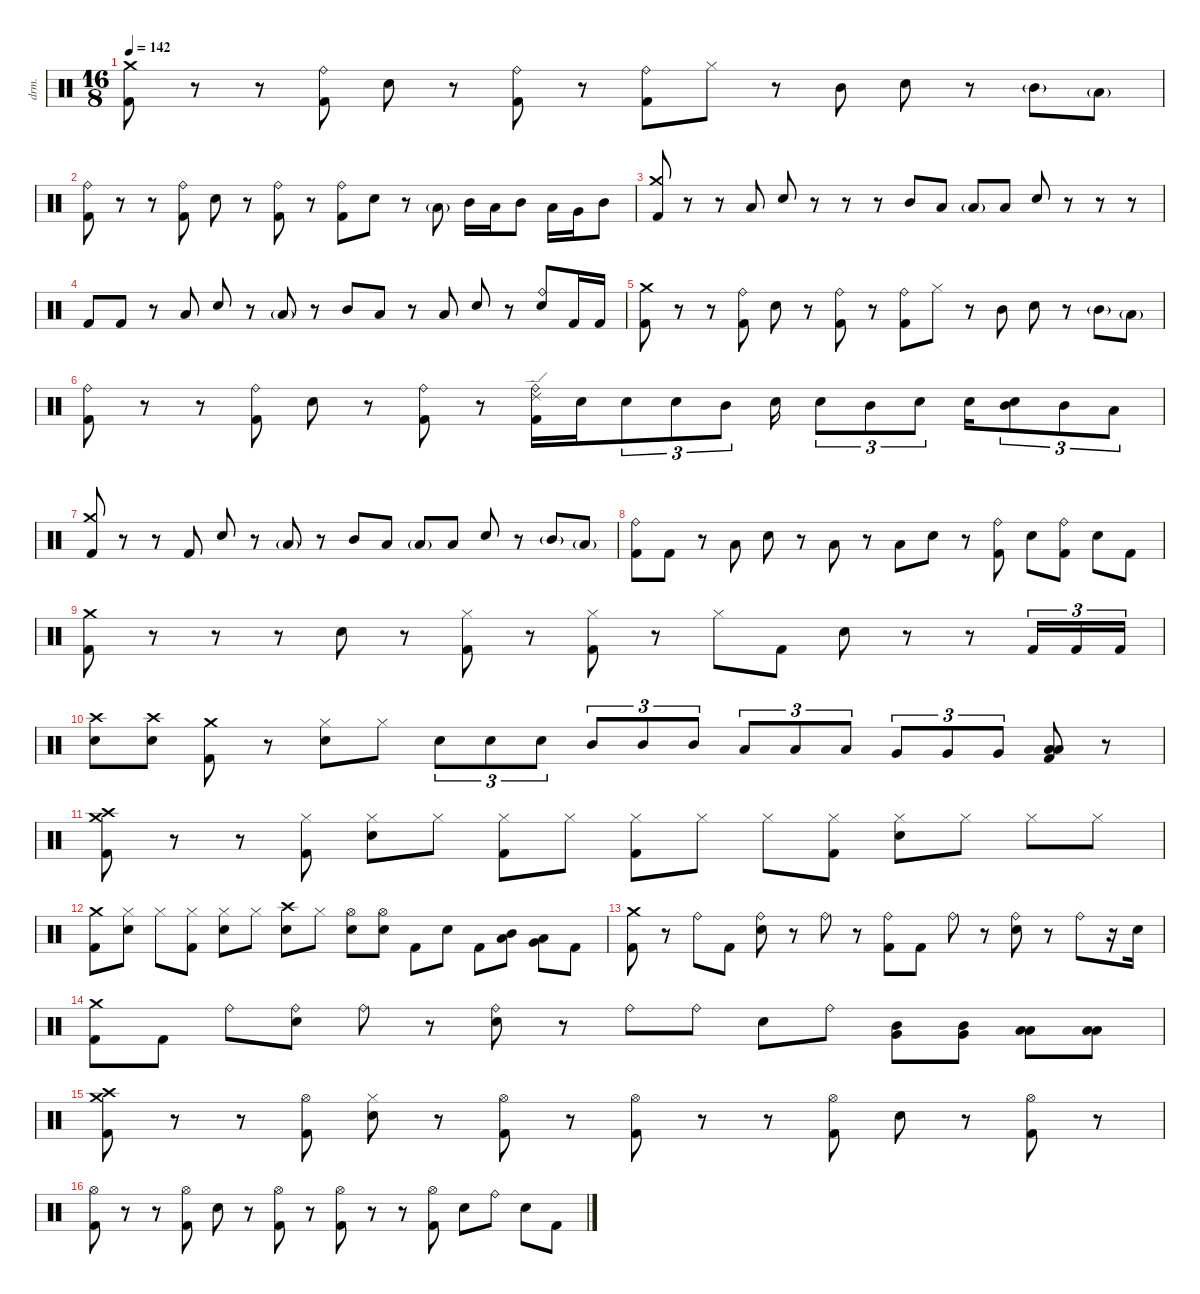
\defaultSystemsLayout 4
\hideDynamics
\bracketExtendMode nobrackets
\otherSystemsTrackNameOrientation horizontal
\track ("Drums" "drm.") {instrument percussion}
\staff {score}
\articulation defaults
\ts (16 8)
\tempo 142
\clef neutral
\ks c
("Crash medium (hit)" "Kick (hit) 2").8{dy f beam Down} r.8{beam Down} r.8{beam Down} ("Ride (bell)" "Kick (hit) 2").8{beam Down} "Snare (hit) 2".8{beam Down} r.8{beam Down} ("Ride (bell)" "Kick (hit) 2").8{beam Down} r.8{beam Down} ("Ride (bell)" "Kick (hit) 2").8{beam Down} "Hi-Hat (closed)".8{beam Down} r.8{beam Down} "Mid Tom (hit)".8{beam Down} "Snare (hit) 2".8{beam Down} r.8{beam Down} "Mid Tom (hit)"{g}.8{dy pp beam Down} "Low Tom (hit)"{g}.8{beam Down} |
("Ride (bell)" "Kick (hit) 2").8{dy f beam Down} r.8{beam Down} r.8{beam Down} ("Ride (bell)" "Kick (hit) 2").8{beam Down} "Snare (hit) 2".8{beam Down} r.8{beam Down} ("Ride (bell)" "Kick (hit) 2").8{beam Down} r.8{beam Down} ("Ride (bell)" "Kick (hit) 2").8{beam Down} "Snare (hit) 2".8{beam Down} r.8{beam Down} "Low Tom (hit)"{g}.8{dy pp beam Down} "Mid Tom (hit)".16{dy f beam Down} "Low Tom (hit)".16{beam Down} "Mid Tom (hit)".8{beam Down} "Low Tom (hit)".16{beam Down} "Very Low Tom (hit)".16{beam Down} "Mid Tom (hit)".8{beam Down} |
("Crash medium (hit)" "Kick (hit) 2").8{beam Up} r.8{beam Up} r.8{beam Up} "Low Tom (hit)".8{beam Up} "Snare (hit) 2".8{beam Up} r.8{beam Up} r.8{beam Up} r.8{beam Up} "Mid Tom (hit)".8{beam Up} "Low Tom (hit)".8{beam Up} "Low Tom (hit)"{g}.8{dy pp beam Up} "Low Tom (hit)".8{dy f beam Up} "Snare (hit) 2".8{beam Up} r.8{beam Up} r.8{beam Up} r.8{beam Up} |
"Kick (hit) 2".8{beam Up} "Kick (hit) 2".8{beam Up} r.8{beam Up} "Low Tom (hit)".8{beam Up} "Snare (hit) 2".8{beam Up} r.8{beam Up} "Low Tom (hit)"{g}.8{dy pp beam Up} r.8{beam Up} "Mid Tom (hit)".8{dy f beam Up} "Low Tom (hit)".8{beam Up} r.8{beam Up} "Low Tom (hit)".8{beam Up} "Snare (hit) 2".8{beam Up} r.8{beam Up} ("Ride (bell)" "Snare (hit) 2").8{beam Up} "Kick (hit) 2".16{beam Up} "Kick (hit) 2".16{beam Up} |
("Crash medium (hit)" "Kick (hit) 2").8{beam Down} r.8{beam Down} r.8{beam Down} ("Ride (bell)" "Kick (hit) 2").8{beam Down} "Snare (hit) 2".8{beam Down} r.8{beam Down} ("Ride (bell)" "Kick (hit) 2").8{beam Down} r.8{beam Down} ("Ride (bell)" "Kick (hit) 2").8{beam Down} "Hi-Hat (closed)".8{beam Down} r.8{beam Down} "Mid Tom (hit)".8{beam Down} "Snare (hit) 2".8{beam Down} r.8{beam Down} "Mid Tom (hit)"{g}.8{dy pp beam Down} "Low Tom (hit)"{g}.8{beam Down} |
("Ride (bell)" "Kick (hit) 2").8{dy f beam Down} r.8{beam Down} r.8{beam Down} ("Ride (bell)" "Kick (hit) 2").8{beam Down} "Snare (hit) 2".8{beam Down} r.8{beam Down} ("Ride (bell)" "Kick (hit) 2").8{beam Down} r.8{beam Down} ("Ride (bell)" "Ride (edge) 2" "Kick (hit) 2").16{beam Down} "Snare (hit) 2".16{beam Down beam merge} "Snare (hit) 2".8{tu (3 2) beam Down} "Snare (hit) 2".8{tu (3 2) beam Down beam merge} "Mid Tom (hit)".8{tu (3 2) beam Down} "Snare (hit) 2".16{beam Down} "Snare (hit) 2".8{tu (3 2) beam Down beam merge} "Mid Tom (hit)".8{tu (3 2) beam Down beam merge} "Snare (hit) 2".8{tu (3 2) beam Down} "Snare (hit) 2".16{beam Down beam merge} ("Snare (hit) 2" "Mid Tom (hit)").8{tu (3 2) beam Down} "Mid Tom (hit)".8{tu (3 2) beam Down beam merge} "Low Tom (hit)".8{tu (3 2) beam Down} |
("Crash medium (hit)" "Kick (hit) 2").8{beam Up} r.8{beam Up} r.8{beam Up} "Kick (hit) 2".8{beam Up} "Snare (hit) 2".8{beam Up} r.8{beam Up} "Low Tom (hit)"{g}.8{dy pp beam Up} r.8{beam Up} "Mid Tom (hit)".8{dy f beam Up} "Low Tom (hit)".8{beam Up} "Low Tom (hit)"{g}.8{dy pp beam Up} "Low Tom (hit)".8{dy f beam Up} "Snare (hit) 2".8{beam Up} r.8{beam Up} "Mid Tom (hit)"{g}.8{dy pp beam Up} "Low Tom (hit)"{g}.8{beam Up} |
("Ride (bell)" "Kick (hit) 2").8{dy f beam Down} "Kick (hit) 2".8{beam Down} r.8{beam Down} "Low Tom (hit)".8{beam Down} "Snare (hit) 2".8{beam Down} r.8{beam Down} "Low Tom (hit)".8{beam Down} r.8{beam Down} "Low Tom (hit)".8{beam Down} "Snare (hit) 2".8{beam Down} r.8{beam Down} ("Ride (bell)" "Kick (hit) 2").8{beam Down} "Snare (hit) 2".8{beam Down} ("Ride (bell)" "Kick (hit) 2").8{beam Down} "Snare (hit) 2".8{beam Down} "Kick (hit) 2".8{beam Down} |
("Crash medium (hit)" "Kick (hit) 2").8{beam Down} r.8{beam Down} r.8{beam Down} r.8{beam Down} "Snare (hit) 2".8{beam Down} r.8{beam Down} ("Hi-Hat (closed)" "Kick (hit) 2").8{beam Down} r.8{beam Down} ("Hi-Hat (closed)" "Kick (hit) 2").8{beam Down} r.8{beam Down} "Hi-Hat (closed)".8{dy p beam Down} "Kick (hit) 2".8{dy f beam Down} "Snare (hit) 2".8{beam Down} r.8{beam Down} r.8{beam Down} "Kick (hit) 2".16{tu (3 2) beam Up} "Kick (hit) 2".16{tu (3 2) beam Up} "Kick (hit) 2".16{tu (3 2) beam Up} |
("Crash high (hit)" "Snare (hit) 2").8{beam Down} ("Crash high (hit)" "Snare (hit) 2").8{beam Down} ("Crash medium (hit)" "Kick (hit) 2").8{beam Down} r.8{beam Down} ("Hi-Hat (closed)" "Snare (hit) 2").8{beam Down} "Hi-Hat (closed)".8{beam Down} "Snare (hit) 2".8{tu (3 2) beam Down} "Snare (hit) 2".8{tu (3 2) beam Down} "Snare (hit) 2".8{tu (3 2) beam Down} "Mid Tom (hit)".8{tu (3 2) beam Up} "Mid Tom (hit)".8{tu (3 2) beam Up} "Mid Tom (hit)".8{tu (3 2) beam Up} "Low Tom (hit)".8{tu (3 2) beam Up} "Low Tom (hit)".8{tu (3 2) beam Up} "Low Tom (hit)".8{tu (3 2) beam Up} "Very Low Tom (hit)".8{tu (3 2) beam Up} "Very Low Tom (hit)".8{tu (3 2) beam Up} "Very Low Tom (hit)".8{tu (3 2) beam Up} ("Low Tom (hit)" "Low Floor Tom (hit)" "Kick (hit) 2").8{beam Up} r.8{beam Up} |
("Crash medium (hit)" "Crash high (hit)" "Kick (hit) 2").8{beam Down} r.8{beam Down} r.8{beam Down} ("Hi-Hat (closed)" "Kick (hit) 2").8{beam Down} ("Hi-Hat (closed)" "Snare (hit) 2").8{beam Down} "Hi-Hat (closed)".8{beam Down} ("Hi-Hat (closed)" "Kick (hit) 2").8{beam Down} "Hi-Hat (closed)".8{beam Down} ("Hi-Hat (closed)" "Kick (hit) 2").8{beam Down} "Hi-Hat (closed)".8{beam Down} "Hi-Hat (closed)".8{beam Down} ("Hi-Hat (closed)" "Kick (hit) 2").8{beam Down} ("Hi-Hat (closed)" "Snare (hit) 2").8{beam Down} "Hi-Hat (closed)".8{beam Down} "Hi-Hat (closed)".8{beam Down} "Hi-Hat (closed)".8{beam Down} |
("Crash medium (hit)" "Kick (hit) 2").8{beam Down} ("Hi-Hat (closed)" "Snare (hit) 2").8{beam Down} "Hi-Hat (closed)".8{beam Down} ("Hi-Hat (closed)" "Kick (hit) 2").8{beam Down} ("Hi-Hat (closed)" "Snare (hit) 2").8{beam Down} "Hi-Hat (closed)".8{beam Down} ("Crash high (hit)" "Snare (hit) 2").8{beam Down} "Hi-Hat (closed)".8{beam Down} ("Hi-Hat (open)" "Snare (hit) 2").8{beam Down} ("Hi-Hat (open)" "Snare (hit) 2").8{beam Down} "Kick (hit) 2".8{beam Down} "Snare (hit) 2".8{beam Down} "Kick (hit) 2".8{beam Down} ("Mid Tom (hit)" "Low Tom (hit)").8{beam Down} ("Low Tom (hit)" "Very Low Tom (hit)").8{beam Down} "Kick (hit) 2".8{beam Down} |
("Crash medium (hit)" "Kick (hit) 2").8{beam Down} r.8{beam Down} "Ride (bell)".8{beam Down} "Kick (hit) 2".8{beam Down} ("Ride (bell)" "Snare (hit) 2").8{beam Down} r.8{beam Down} "Ride (bell)".8{beam Down} r.8{beam Down} ("Ride (bell)" "Kick (hit) 2").8{beam Down} "Kick (hit) 2".8{beam Down} "Ride (bell)".8{beam Down} r.8{beam Down} ("Ride (bell)" "Snare (hit) 2").8{beam Down} r.8{beam Down} "Ride (bell)".8{beam Down} r.16{beam Down} "Snare (hit) 2".16{beam Down} |
("Crash medium (hit)" "Kick (hit) 2").8{beam Down} "Kick (hit) 2".8{beam Down} "Ride (bell)".8{beam Down} ("Ride (bell)" "Snare (hit) 2").8{beam Down} "Ride (bell)".8{beam Down} r.8{beam Down} ("Ride (bell)" "Snare (hit) 2").8{beam Down} r.8{beam Down} "Ride (bell)".8{beam Down} "Ride (bell)".8{beam Down} "Snare (hit) 2".8{beam Down} "Ride (bell)".8{beam Down} ("Mid Tom (hit)" "Very Low Tom (hit)").8{beam Down} ("Mid Tom (hit)" "Very Low Tom (hit)").8{beam Down} ("Low Tom (hit)" "Low Floor Tom (hit)").8{beam Down} ("Low Tom (hit)" "Low Floor Tom (hit)").8{beam Down} |
("Crash medium (hit)" "Crash high (hit)" "Kick (hit) 2").8{beam Down} r.8{beam Down} r.8{beam Down} ("Hi-Hat (open)" "Kick (hit) 2").8{beam Down} ("Hi-Hat (closed)" "Snare (hit) 2").8{beam Down} r.8{beam Down} ("Hi-Hat (open)" "Kick (hit) 2").8{beam Down} r.8{beam Down} ("Hi-Hat (open)" "Kick (hit) 2").8{beam Down} r.8{beam Down} r.8{beam Down} ("Hi-Hat (open)" "Kick (hit) 2").8{beam Down} "Snare (hit) 2".8{beam Down} r.8{beam Down} ("Hi-Hat (open)" "Kick (hit) 2").8{beam Down} r.8{beam Down} |
("Hi-Hat (open)" "Kick (hit) 2").8{beam Down} r.8{beam Down} r.8{beam Down} ("Hi-Hat (open)" "Kick (hit) 2").8{beam Down} "Snare (hit) 2".8{beam Down} r.8{beam Down} ("Hi-Hat (open)" "Kick (hit) 2").8{beam Down} r.8{beam Down} ("Hi-Hat (open)" "Kick (hit) 2").8{beam Down} r.8{beam Down} r.8{beam Down} ("Hi-Hat (open)" "Kick (hit) 2").8{beam Down} "Snare (hit) 2".8{beam Down} "Ride (bell)".8{beam Down} "Snare (hit) 2".8{beam Down} "Kick (hit) 2".8{beam Down}
